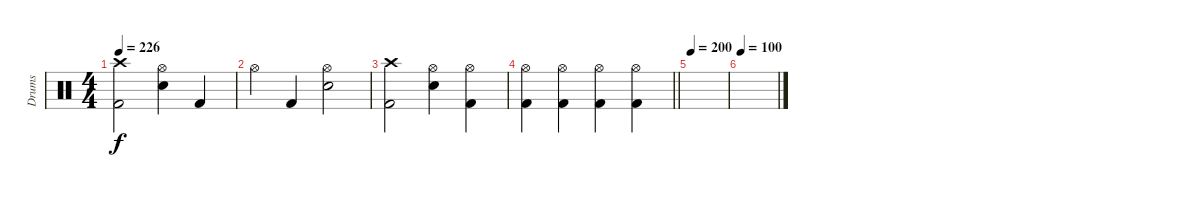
\track ("Drums" "Drums") {instrument percussion}
\staff
\articulation defaults
\ts (4 4)
\tempo 226
\clef neutral
\ks c
("Crash high (hit)" "Kick (hit) 2").2{dy f} ("Hi-Hat (open)" "Snare (hit) 2").4 "Kick (hit) 2".4 |
"Hi-Hat (open)".4 "Kick (hit) 2".4 ("Hi-Hat (open)" "Snare (hit) 2").2 |
("Crash high (hit)" "Kick (hit) 2").2 ("Hi-Hat (open)" "Snare (hit) 2").4 ("Hi-Hat (open)" "Kick (hit) 2").4 |
\barLineRight lightlight
("Hi-Hat (open)" "Kick (hit) 2").4 ("Hi-Hat (open)" "Kick (hit) 2").4 ("Hi-Hat (open)" "Kick (hit) 2").4 ("Hi-Hat (open)" "Kick (hit) 2").4 |
\tempo 200
|
\tempo 100
